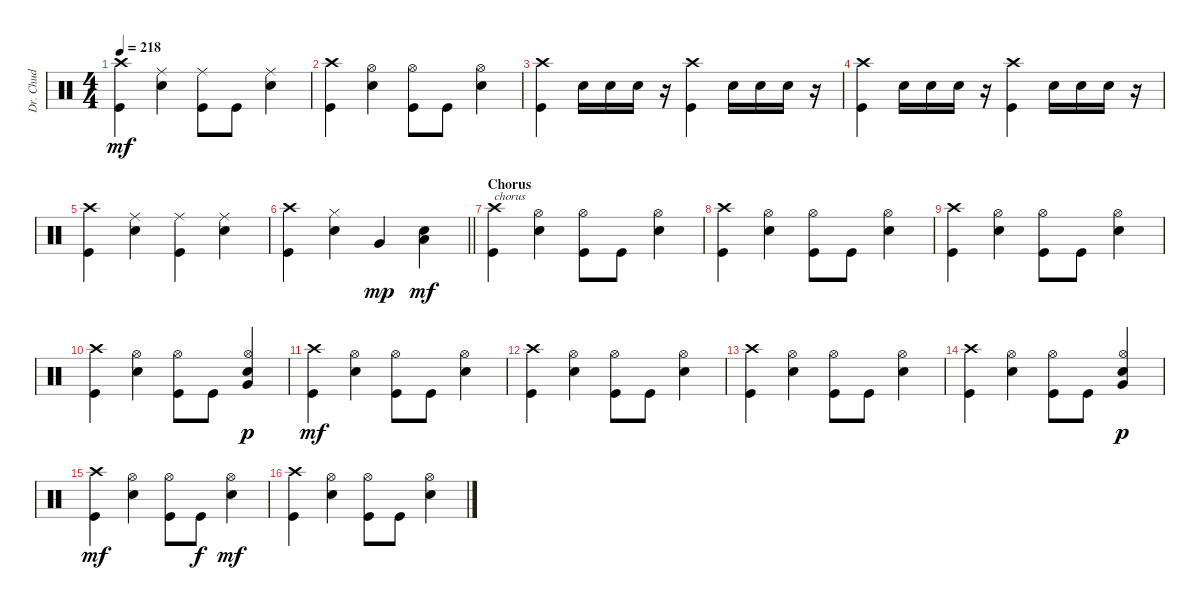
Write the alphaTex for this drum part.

\track ("Dr. Chud" "Dr. Chud") {instrument percussion}
\staff {score}
\articulation defaults
\ts (4 4)
\tempo 218
\clef neutral
\ks c
("Crash high (hit)" "Kick (hit)").4{dy mf} ("Ride (middle)" "Electric Snare (hit)").4 ("Ride (middle)" "Kick (hit)").8 "Kick (hit)".8 ("Ride (middle)" "Electric Snare (hit)").4 |
("Crash high (hit)" "Kick (hit)").4 ("Hi-Hat (open)" "Electric Snare (hit)").4 ("Hi-Hat (open)" "Kick (hit)").8 "Kick (hit)".8 ("Hi-Hat (open)" "Electric Snare (hit)").4 |
("Crash high (hit)" "Kick (hit)").4 "Electric Snare (hit)".16 "Electric Snare (hit)".16 "Electric Snare (hit)".16 r.16 ("Crash high (hit)" "Kick (hit)").4 "Electric Snare (hit)".16 "Electric Snare (hit)".16 "Electric Snare (hit)".16 r.16 |
("Crash high (hit)" "Kick (hit)").4 "Electric Snare (hit)".16 "Electric Snare (hit)".16 "Electric Snare (hit)".16 r.16 ("Crash high (hit)" "Kick (hit)").4 "Electric Snare (hit)".16 "Electric Snare (hit)".16 "Electric Snare (hit)".16 r.16 |
("Crash high (hit)" "Kick (hit)").4 ("Ride (middle)" "Electric Snare (hit)").4 ("Ride (middle)" "Kick (hit)").4 ("Ride (middle)" "Electric Snare (hit)").4 |
\barLineRight lightlight
("Crash high (hit)" "Kick (hit)").4 ("Hi-Hat (closed)" "Electric Snare (hit)").4 "Very Low Tom (hit)".4{dy mp} ("Low Floor Tom (hit)" "Electric Snare (hit)").4{dy mf} |
\section ("" "Chorus")
("Crash high (hit)" "Kick (hit)").4{txt "chorus"} ("Hi-Hat (open)" "Electric Snare (hit)").4 ("Hi-Hat (open)" "Kick (hit)").8 "Kick (hit)".8 ("Hi-Hat (open)" "Electric Snare (hit)").4 |
("Crash high (hit)" "Kick (hit)").4 ("Hi-Hat (open)" "Electric Snare (hit)").4 ("Hi-Hat (open)" "Kick (hit)").8 "Kick (hit)".8 ("Hi-Hat (open)" "Electric Snare (hit)").4 |
("Crash high (hit)" "Kick (hit)").4 ("Hi-Hat (open)" "Electric Snare (hit)").4 ("Hi-Hat (open)" "Kick (hit)").8 "Kick (hit)".8 ("Hi-Hat (open)" "Electric Snare (hit)").4 |
("Crash high (hit)" "Kick (hit)").4 ("Hi-Hat (open)" "Electric Snare (hit)").4 ("Hi-Hat (open)" "Kick (hit)").8 "Kick (hit)".8 ("Hi-Hat (open)" "Very Low Tom (hit)" "Electric Snare (hit)").4{dy p} |
("Crash high (hit)" "Kick (hit)").4{dy mf} ("Hi-Hat (open)" "Electric Snare (hit)").4 ("Hi-Hat (open)" "Kick (hit)").8 "Kick (hit)".8 ("Hi-Hat (open)" "Electric Snare (hit)").4 |
("Crash high (hit)" "Kick (hit)").4 ("Hi-Hat (open)" "Electric Snare (hit)").4 ("Hi-Hat (open)" "Kick (hit)").8 "Kick (hit)".8 ("Hi-Hat (open)" "Electric Snare (hit)").4 |
("Crash high (hit)" "Kick (hit)").4 ("Hi-Hat (open)" "Electric Snare (hit)").4 ("Hi-Hat (open)" "Kick (hit)").8 "Kick (hit)".8 ("Hi-Hat (open)" "Electric Snare (hit)").4 |
("Crash high (hit)" "Kick (hit)").4 ("Hi-Hat (open)" "Electric Snare (hit)").4 ("Hi-Hat (open)" "Kick (hit)").8 "Kick (hit)".8 ("Hi-Hat (open)" "Very Low Tom (hit)" "Electric Snare (hit)").4{dy p} |
("Crash high (hit)" "Kick (hit)").4{dy mf} ("Hi-Hat (open)" "Electric Snare (hit)").4 ("Hi-Hat (open)" "Kick (hit)").8 "Kick (hit)".8{dy f} ("Hi-Hat (open)" "Electric Snare (hit)").4{dy mf} |
("Crash high (hit)" "Kick (hit)").4 ("Hi-Hat (open)" "Electric Snare (hit)").4 ("Hi-Hat (open)" "Kick (hit)").8 "Kick (hit)".8 ("Hi-Hat (open)" "Electric Snare (hit)").4
